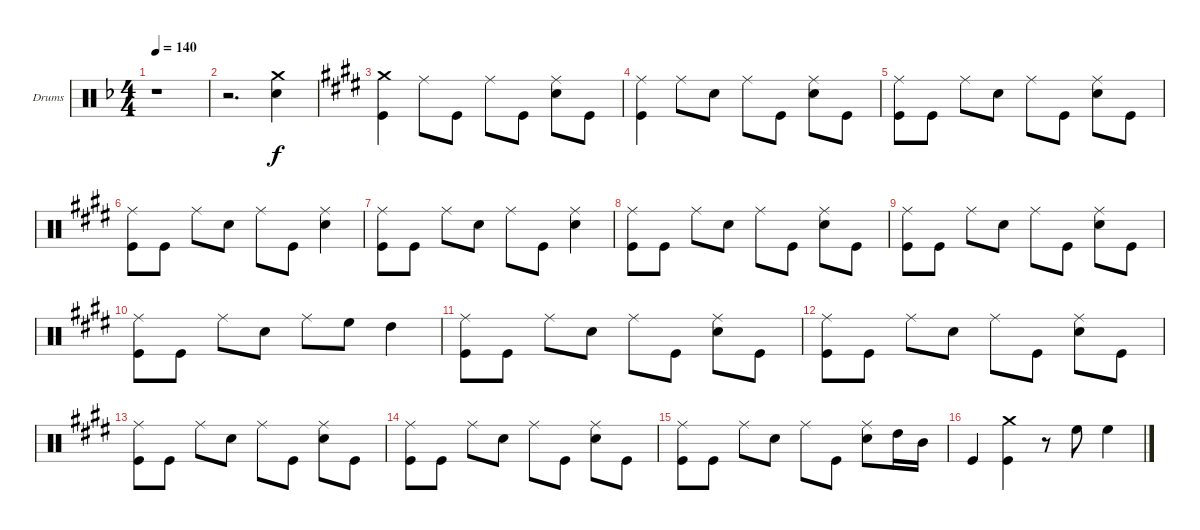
\bracketExtendMode groupsimilarinstruments
\firstSystemTrackNameOrientation horizontal
\otherSystemsTrackNameOrientation horizontal
\track ("Drumkit" "Drums") {instrument percussion}
\staff {score}
\articulation defaults
\ts (4 4)
\tempo 140
\clef neutral
\ks f
r.1{dy mp} |
r.2{d} ("Crash medium (hit)" "Snare (hit) 2").4{dy f} |
\ks e
("Crash medium (hit)" "Kick (hit)").4 "Ride (middle)".8 "Kick (hit)".8 "Ride (middle)".8 "Kick (hit)".8 ("Ride (middle)" "Snare (hit) 2").8 "Kick (hit)".8 |
("Ride (middle)" "Kick (hit)").4 "Ride (middle)".8 "Snare (hit) 2".8 "Ride (middle)".8 "Kick (hit)".8 ("Ride (middle)" "Snare (hit) 2").8 "Kick (hit)".8 |
("Ride (middle)" "Kick (hit)").8 "Kick (hit)".8 "Ride (middle)".8 "Snare (hit) 2".8 "Ride (middle)".8 "Kick (hit)".8 ("Ride (middle)" "Snare (hit) 2").8 "Kick (hit)".8 |
("Ride (middle)" "Kick (hit)").8 "Kick (hit)".8 "Ride (middle)".8 "Snare (hit) 2".8 "Ride (middle)".8 "Kick (hit)".8 ("Ride (middle)" "Snare (hit) 2").4 |
("Ride (middle)" "Kick (hit)").8 "Kick (hit)".8 "Ride (middle)".8 "Snare (hit) 2".8 "Ride (middle)".8 "Kick (hit)".8 ("Ride (middle)" "Snare (hit) 2").4 |
("Ride (middle)" "Kick (hit)").8 "Kick (hit)".8 "Ride (middle)".8 "Snare (hit) 2".8 "Ride (middle)".8 "Kick (hit)".8 ("Ride (middle)" "Snare (hit) 2").8 "Kick (hit)".8 |
("Ride (middle)" "Kick (hit)").8 "Kick (hit)".8 "Ride (middle)".8 "Snare (hit) 2".8 "Ride (middle)".8 "Kick (hit)".8 ("Ride (middle)" "Snare (hit) 2").8 "Kick (hit)".8 |
("Ride (middle)" "Kick (hit)").8 "Kick (hit)".8 "Ride (middle)".8 "Snare (hit) 2".8 "Ride (middle)".8 "High Floor Tom (hit)".8 "High Tom (hit)".4 |
("Ride (middle)" "Kick (hit)").8 "Kick (hit)".8 "Ride (middle)".8 "Snare (hit) 2".8 "Ride (middle)".8 "Kick (hit)".8 ("Ride (middle)" "Snare (hit) 2").8 "Kick (hit)".8 |
("Ride (middle)" "Kick (hit)").8 "Kick (hit)".8 "Ride (middle)".8 "Snare (hit) 2".8 "Ride (middle)".8 "Kick (hit)".8 ("Ride (middle)" "Snare (hit) 2").8 "Kick (hit)".8 |
("Ride (middle)" "Kick (hit)").8 "Kick (hit)".8 "Ride (middle)".8 "Snare (hit) 2".8 "Ride (middle)".8 "Kick (hit)".8 ("Ride (middle)" "Snare (hit) 2").8 "Kick (hit)".8 |
("Ride (middle)" "Kick (hit)").8 "Kick (hit)".8 "Ride (middle)".8 "Snare (hit) 2".8 "Ride (middle)".8 "Kick (hit)".8 ("Ride (middle)" "Snare (hit) 2").8 "Kick (hit)".8 |
("Ride (middle)" "Kick (hit)").8 "Kick (hit)".8 "Ride (middle)".8 "Snare (hit) 2".8 "Ride (middle)".8 "Kick (hit)".8 ("Ride (middle)" "Snare (hit) 2").8 "High Tom (hit)".16 "Mid Tom (hit)".16 |
"Kick (hit)".4 ("Crash medium (hit)" "Kick (hit)").4 r.8 "High Floor Tom (hit)".8 "High Floor Tom (hit)".4
